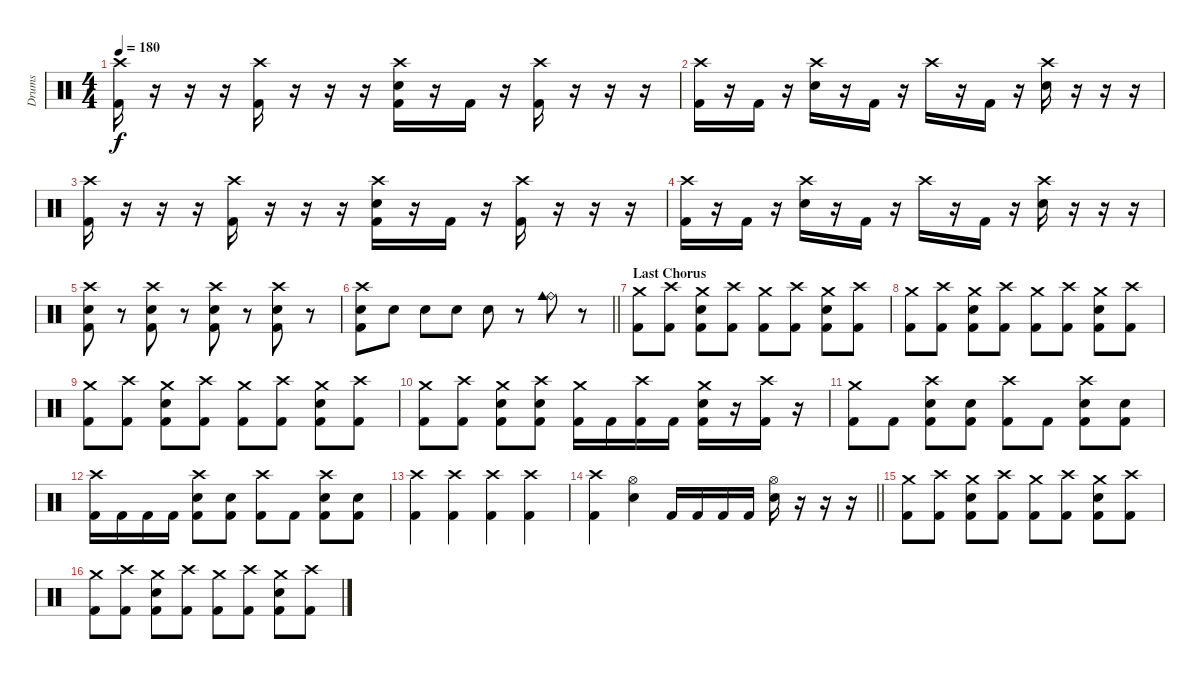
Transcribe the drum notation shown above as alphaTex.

\track ("Drums" "Drums") {instrument percussion}
\staff {score}
\articulation defaults
\ts (4 4)
\tempo 180
\clef neutral
\ks c
("Crash high (hit)" "Kick (hit) 2").16{dy f} r.16 r.16 r.16 ("Crash high (hit)" "Kick (hit) 2").16 r.16 r.16 r.16 ("Crash high (hit)" "Electric Snare (hit)" "Kick (hit) 2").16 r.16 "Kick (hit) 2".16 r.16 ("Crash high (hit)" "Kick (hit) 2").16 r.16 r.16 r.16 |
("Crash high (hit)" "Kick (hit) 2").16 r.16 "Kick (hit) 2".16 r.16 ("Crash high (hit)" "Electric Snare (hit)").16 r.16 "Kick (hit) 2".16 r.16 "Crash high (hit)".16 r.16 "Kick (hit) 2".16 r.16 ("Crash high (hit)" "Electric Snare (hit)").16 r.16 r.16 r.16 |
("Crash high (hit)" "Kick (hit) 2").16 r.16 r.16 r.16 ("Crash high (hit)" "Kick (hit) 2").16 r.16 r.16 r.16 ("Crash high (hit)" "Electric Snare (hit)" "Kick (hit) 2").16 r.16 "Kick (hit) 2".16 r.16 ("Crash high (hit)" "Kick (hit) 2").16 r.16 r.16 r.16 |
("Crash high (hit)" "Kick (hit) 2").16 r.16 "Kick (hit) 2".16 r.16 ("Crash high (hit)" "Electric Snare (hit)").16 r.16 "Kick (hit) 2".16 r.16 "Crash high (hit)".16 r.16 "Kick (hit) 2".16 r.16 ("Crash high (hit)" "Electric Snare (hit)").16 r.16 r.16 r.16 |
("Crash high (hit)" "Electric Snare (hit)" "Kick (hit) 2").8 r.8 ("Crash high (hit)" "Electric Snare (hit)" "Kick (hit) 2").8 r.8 ("Crash high (hit)" "Electric Snare (hit)" "Kick (hit) 2").8 r.8 ("Crash high (hit)" "Electric Snare (hit)" "Kick (hit) 2").8 r.8 |
\barLineRight lightlight
("Crash high (hit)" "Electric Snare (hit)" "Kick (hit) 2").8 "Electric Snare (hit)".8 "Electric Snare (hit)".8 "Electric Snare (hit)".8 "Electric Snare (hit)".8 r.8 ("Ride (bell)" "Cowbell medium (hit)").8 r.8 |
\section ("" "Last Chorus")
("Crash medium (hit)" "Kick (hit) 2").8 ("Crash high (hit)" "Kick (hit) 2").8 ("Crash medium (hit)" "Electric Snare (hit)" "Kick (hit) 2").8 ("Crash high (hit)" "Kick (hit) 2").8 ("Crash medium (hit)" "Kick (hit) 2").8 ("Crash high (hit)" "Kick (hit) 2").8 ("Crash medium (hit)" "Electric Snare (hit)" "Kick (hit) 2").8 ("Crash high (hit)" "Kick (hit) 2").8 |
("Crash medium (hit)" "Kick (hit) 2").8 ("Crash high (hit)" "Kick (hit) 2").8 ("Crash medium (hit)" "Electric Snare (hit)" "Kick (hit) 2").8 ("Crash high (hit)" "Kick (hit) 2").8 ("Crash medium (hit)" "Kick (hit) 2").8 ("Crash high (hit)" "Kick (hit) 2").8 ("Crash medium (hit)" "Electric Snare (hit)" "Kick (hit) 2").8 ("Crash high (hit)" "Kick (hit) 2").8 |
("Crash medium (hit)" "Kick (hit) 2").8 ("Crash high (hit)" "Kick (hit) 2").8 ("Crash medium (hit)" "Electric Snare (hit)" "Kick (hit) 2").8 ("Crash high (hit)" "Kick (hit) 2").8 ("Crash medium (hit)" "Kick (hit) 2").8 ("Crash high (hit)" "Kick (hit) 2").8 ("Crash medium (hit)" "Electric Snare (hit)" "Kick (hit) 2").8 ("Crash high (hit)" "Kick (hit) 2").8 |
("Crash medium (hit)" "Kick (hit) 2").8 ("Crash high (hit)" "Kick (hit) 2").8 ("Crash medium (hit)" "Electric Snare (hit)" "Kick (hit) 2").8 ("Crash high (hit)" "Electric Snare (hit)" "Kick (hit) 2").8 ("Crash medium (hit)" "Kick (hit) 2").16 "Kick (hit) 2".16 ("Crash high (hit)" "Kick (hit) 2").16 "Kick (hit) 2".16 ("Crash medium (hit)" "Electric Snare (hit)" "Kick (hit) 2").16 r.16 ("Crash high (hit)" "Kick (hit) 2").16 r.16 |
("Crash medium (hit)" "Kick (hit) 2").8 "Kick (hit) 2".8 ("Crash high (hit)" "Electric Snare (hit)" "Kick (hit) 2").8 ("Electric Snare (hit)" "Kick (hit) 2").8 ("Crash high (hit)" "Kick (hit) 2").8 "Kick (hit) 2".8 ("Crash high (hit)" "Electric Snare (hit)" "Kick (hit) 2").8 ("Electric Snare (hit)" "Kick (hit) 2").8 |
("Crash high (hit)" "Kick (hit) 2").16 "Kick (hit) 2".16 "Kick (hit) 2".16 "Kick (hit) 2".16 ("Crash high (hit)" "Electric Snare (hit)" "Kick (hit) 2").8 ("Electric Snare (hit)" "Kick (hit) 2").8 ("Crash high (hit)" "Kick (hit) 2").8 "Kick (hit) 2".8 ("Crash high (hit)" "Electric Snare (hit)" "Kick (hit) 2").8 ("Electric Snare (hit)" "Kick (hit) 2").8 |
("Crash high (hit)" "Kick (hit) 2").4 ("Crash high (hit)" "Kick (hit) 2").4 ("Crash high (hit)" "Kick (hit) 2").4 ("Crash high (hit)" "Kick (hit) 2").4 |
\barLineRight lightlight
("Crash high (hit)" "Kick (hit) 2").4 ("Hi-Hat (open)" "Electric Snare (hit)").4 "Kick (hit) 2".16 "Kick (hit) 2".16 "Kick (hit) 2".16 "Kick (hit) 2".16 ("Hi-Hat (open)" "Electric Snare (hit)").16 r.16 r.16 r.16 |
("Crash medium (hit)" "Kick (hit) 2").8 ("Crash high (hit)" "Kick (hit) 2").8 ("Crash medium (hit)" "Electric Snare (hit)" "Kick (hit) 2").8 ("Crash high (hit)" "Kick (hit) 2").8 ("Crash medium (hit)" "Kick (hit) 2").8 ("Crash high (hit)" "Kick (hit) 2").8 ("Crash medium (hit)" "Electric Snare (hit)" "Kick (hit) 2").8 ("Crash high (hit)" "Kick (hit) 2").8 |
("Crash medium (hit)" "Kick (hit) 2").8 ("Crash high (hit)" "Kick (hit) 2").8 ("Crash medium (hit)" "Electric Snare (hit)" "Kick (hit) 2").8 ("Crash high (hit)" "Kick (hit) 2").8 ("Crash medium (hit)" "Kick (hit) 2").8 ("Crash high (hit)" "Kick (hit) 2").8 ("Crash medium (hit)" "Electric Snare (hit)" "Kick (hit) 2").8 ("Crash high (hit)" "Kick (hit) 2").8
